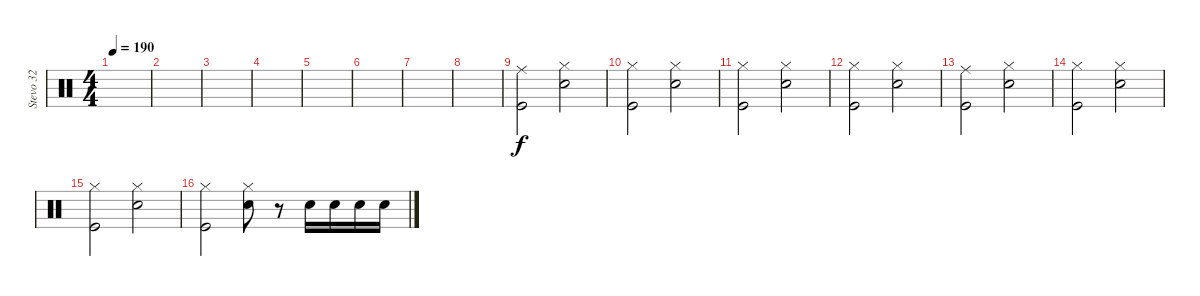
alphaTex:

\track ("Stevo 32" "Stevo 32") {instrument percussion}
\staff {score}
\articulation defaults
\ts (4 4)
\tempo 190
\clef neutral
\ks c
|
|
|
|
|
|
|
|
("Ride (middle)" "Kick (hit)").2 ("Hi-Hat (closed)" "Snare (hit) 2").2 |
("Hi-Hat (closed)" "Kick (hit)").2 ("Hi-Hat (closed)" "Snare (hit) 2").2 |
("Hi-Hat (closed)" "Kick (hit)").2 ("Hi-Hat (closed)" "Snare (hit) 2").2 |
("Hi-Hat (closed)" "Kick (hit)").2 ("Hi-Hat (closed)" "Snare (hit) 2").2 |
("Ride (middle)" "Kick (hit)").2 ("Hi-Hat (closed)" "Snare (hit) 2").2 |
("Hi-Hat (closed)" "Kick (hit)").2 ("Hi-Hat (closed)" "Snare (hit) 2").2 |
("Hi-Hat (closed)" "Kick (hit)").2 ("Hi-Hat (closed)" "Snare (hit) 2").2 |
("Hi-Hat (closed)" "Kick (hit)").2 ("Hi-Hat (closed)" "Snare (hit) 2").8 r.8 "Snare (hit) 2".16 "Snare (hit) 2".16 "Snare (hit) 2".16 "Snare (hit) 2".16
